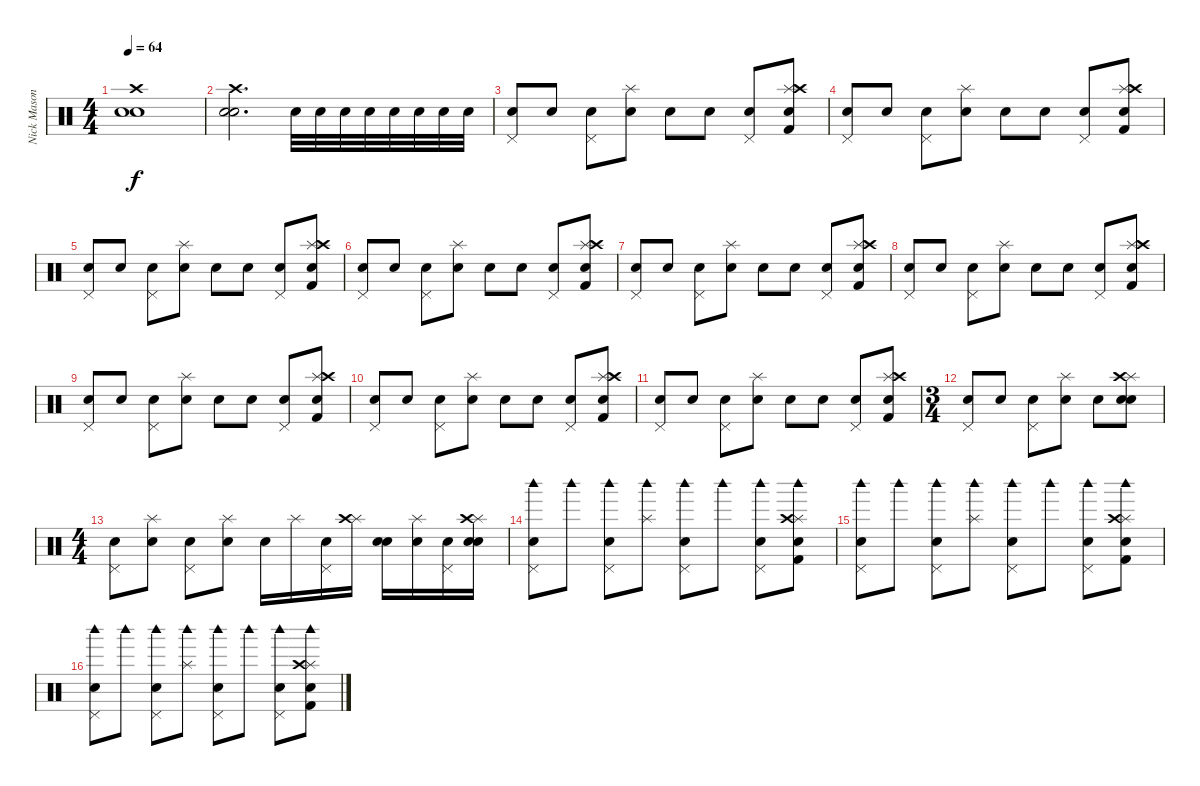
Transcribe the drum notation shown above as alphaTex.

\track ("Nick Mason" "Nick Mason") {instrument percussion}
\staff {score}
\articulation defaults
\ts (4 4)
\tempo 64
\clef neutral
\ks c
("Electric Snare (hit)" "Crash high (hit)" "Snare (hit) 2").1{dy f} |
("Electric Snare (hit)" "Crash high (hit)" "Snare (hit) 2").2{d} "Snare (hit) 2".32 "Snare (hit) 2".32 "Snare (hit) 2".32 "Snare (hit) 2".32 "Electric Snare (hit)".32 "Electric Snare (hit)".32 "Electric Snare (hit)".32 "Electric Snare (hit)".32 |
("Pedal Hi-Hat (hit)" "Snare (hit) 2").8 "Electric Snare (hit)".8 ("Pedal Hi-Hat (hit)" "Snare (hit) 2").8 ("Splash (hit)" "Electric Snare (hit)").8 "Snare (hit) 2".8 "Electric Snare (hit)".8 ("Pedal Hi-Hat (hit)" "Snare (hit) 2").8 ("Splash (hit)" "Crash high (hit)" "Electric Snare (hit)" "Kick (hit) 2").8 |
("Pedal Hi-Hat (hit)" "Snare (hit) 2").8 "Electric Snare (hit)".8 ("Pedal Hi-Hat (hit)" "Snare (hit) 2").8 ("Splash (hit)" "Electric Snare (hit)").8 "Snare (hit) 2".8 "Electric Snare (hit)".8 ("Pedal Hi-Hat (hit)" "Snare (hit) 2").8 ("Splash (hit)" "Crash high (hit)" "Electric Snare (hit)" "Kick (hit) 2").8 |
("Pedal Hi-Hat (hit)" "Snare (hit) 2").8 "Electric Snare (hit)".8 ("Pedal Hi-Hat (hit)" "Snare (hit) 2").8 ("Splash (hit)" "Electric Snare (hit)").8 "Snare (hit) 2".8 "Electric Snare (hit)".8 ("Pedal Hi-Hat (hit)" "Snare (hit) 2").8 ("Splash (hit)" "Crash high (hit)" "Electric Snare (hit)" "Kick (hit) 2").8 |
("Pedal Hi-Hat (hit)" "Snare (hit) 2").8 "Electric Snare (hit)".8 ("Pedal Hi-Hat (hit)" "Snare (hit) 2").8 ("Splash (hit)" "Electric Snare (hit)").8 "Snare (hit) 2".8 "Electric Snare (hit)".8 ("Pedal Hi-Hat (hit)" "Snare (hit) 2").8 ("Splash (hit)" "Crash high (hit)" "Electric Snare (hit)" "Kick (hit) 2").8 |
("Pedal Hi-Hat (hit)" "Snare (hit) 2").8 "Electric Snare (hit)".8 ("Pedal Hi-Hat (hit)" "Snare (hit) 2").8 ("Splash (hit)" "Electric Snare (hit)").8 "Snare (hit) 2".8 "Electric Snare (hit)".8 ("Pedal Hi-Hat (hit)" "Snare (hit) 2").8 ("Splash (hit)" "Crash high (hit)" "Electric Snare (hit)" "Kick (hit) 2").8 |
("Pedal Hi-Hat (hit)" "Snare (hit) 2").8 "Electric Snare (hit)".8 ("Pedal Hi-Hat (hit)" "Snare (hit) 2").8 ("Splash (hit)" "Electric Snare (hit)").8 "Snare (hit) 2".8 "Electric Snare (hit)".8 ("Pedal Hi-Hat (hit)" "Snare (hit) 2").8 ("Splash (hit)" "Crash high (hit)" "Electric Snare (hit)" "Kick (hit) 2").8 |
("Pedal Hi-Hat (hit)" "Snare (hit) 2").8 "Electric Snare (hit)".8 ("Pedal Hi-Hat (hit)" "Snare (hit) 2").8 ("Splash (hit)" "Electric Snare (hit)").8 "Snare (hit) 2".8 "Electric Snare (hit)".8 ("Pedal Hi-Hat (hit)" "Snare (hit) 2").8 ("Splash (hit)" "Crash high (hit)" "Electric Snare (hit)" "Kick (hit) 2").8 |
("Pedal Hi-Hat (hit)" "Snare (hit) 2").8 "Electric Snare (hit)".8 ("Pedal Hi-Hat (hit)" "Snare (hit) 2").8 ("Splash (hit)" "Electric Snare (hit)").8 "Snare (hit) 2".8 "Electric Snare (hit)".8 ("Pedal Hi-Hat (hit)" "Snare (hit) 2").8 ("Splash (hit)" "Crash high (hit)" "Electric Snare (hit)" "Kick (hit) 2").8 |
("Pedal Hi-Hat (hit)" "Snare (hit) 2").8 "Electric Snare (hit)".8 ("Pedal Hi-Hat (hit)" "Snare (hit) 2").8 ("Splash (hit)" "Electric Snare (hit)").8 "Snare (hit) 2".8 "Electric Snare (hit)".8 ("Pedal Hi-Hat (hit)" "Snare (hit) 2").8 ("Splash (hit)" "Crash high (hit)" "Electric Snare (hit)" "Kick (hit) 2").8 |
\ts (3 4)
("Pedal Hi-Hat (hit)" "Snare (hit) 2").8 "Electric Snare (hit)".8 ("Pedal Hi-Hat (hit)" "Snare (hit) 2").8 ("Splash (hit)" "Electric Snare (hit)").8 "Snare (hit) 2".8 ("Splash (hit)" "Crash high (hit)" "Electric Snare (hit)" "Hand Clap (hit)").8 |
\ts (4 4)
("Pedal Hi-Hat (hit)" "Snare (hit) 2").8 ("Splash (hit)" "Electric Snare (hit)").8 ("Pedal Hi-Hat (hit)" "Snare (hit) 2").8 ("Splash (hit)" "Electric Snare (hit)").8 "Snare (hit) 2".16 "Splash (hit)".16 ("Pedal Hi-Hat (hit)" "Snare (hit) 2").16 ("Splash (hit)" "Crash high (hit)").16 ("Electric Snare (hit)" "Snare (hit) 2").16 ("Splash (hit)" "Snare (hit) 2").16 ("Pedal Hi-Hat (hit)" "Snare (hit) 2").16 ("Splash (hit)" "Crash high (hit)" "Electric Snare (hit)" "Snare (hit) 2").16 |
("Woodblock high (hit)" "Pedal Hi-Hat (hit)" "Snare (hit) 2").8 "Woodblock high (hit)".8 ("Woodblock high (hit)" "Pedal Hi-Hat (hit)" "Snare (hit) 2").8 ("Woodblock high (hit)" "Splash (hit)").8 ("Woodblock high (hit)" "Pedal Hi-Hat (hit)" "Snare (hit) 2").8 "Woodblock high (hit)".8 ("Woodblock high (hit)" "Pedal Hi-Hat (hit)" "Snare (hit) 2").8 ("Woodblock high (hit)" "Splash (hit)" "Crash high (hit)" "Electric Snare (hit)" "Kick (hit) 2").8 |
("Woodblock high (hit)" "Pedal Hi-Hat (hit)" "Snare (hit) 2").8 "Woodblock high (hit)".8 ("Woodblock high (hit)" "Pedal Hi-Hat (hit)" "Snare (hit) 2").8 ("Woodblock high (hit)" "Splash (hit)").8 ("Woodblock high (hit)" "Pedal Hi-Hat (hit)" "Snare (hit) 2").8 "Woodblock high (hit)".8 ("Woodblock high (hit)" "Pedal Hi-Hat (hit)" "Snare (hit) 2").8 ("Woodblock high (hit)" "Splash (hit)" "Crash high (hit)" "Electric Snare (hit)" "Kick (hit) 2").8 |
("Woodblock high (hit)" "Pedal Hi-Hat (hit)" "Snare (hit) 2").8 "Woodblock high (hit)".8 ("Woodblock high (hit)" "Pedal Hi-Hat (hit)" "Snare (hit) 2").8 ("Woodblock high (hit)" "Splash (hit)").8 ("Woodblock high (hit)" "Pedal Hi-Hat (hit)" "Snare (hit) 2").8 "Woodblock high (hit)".8 ("Woodblock high (hit)" "Pedal Hi-Hat (hit)" "Snare (hit) 2").8 ("Woodblock high (hit)" "Splash (hit)" "Crash high (hit)" "Electric Snare (hit)" "Kick (hit) 2").8
